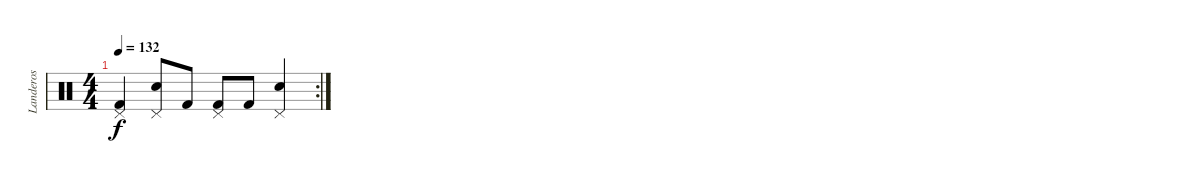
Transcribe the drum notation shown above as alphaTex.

\track ("Landeros" "Landeros") {instrument percussion}
\staff {score}
\articulation defaults
\rc 2
\ts (4 4)
\tempo 132
\clef neutral
\ks c
("Kick (hit) 2" "Pedal Hi-Hat (hit)").4{dy f} ("Electric Snare (hit)" "Pedal Hi-Hat (hit)").8 "Kick (hit) 2".8 ("Kick (hit) 2" "Pedal Hi-Hat (hit)").8 "Kick (hit) 2".8 ("Electric Snare (hit)" "Pedal Hi-Hat (hit)").4
